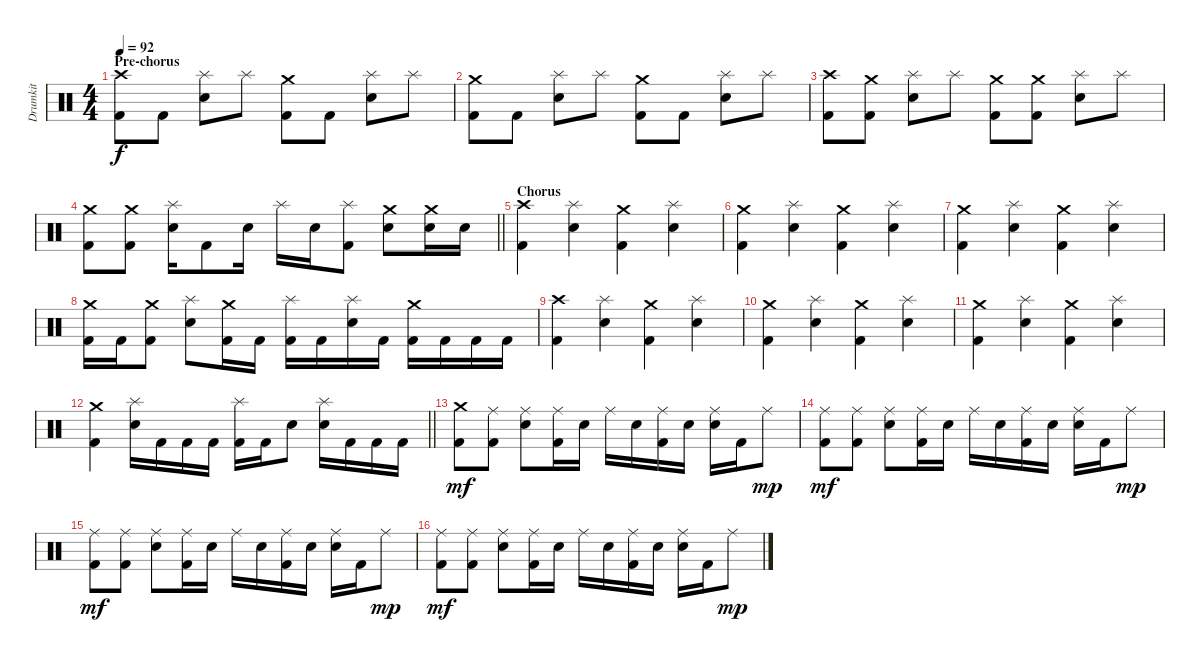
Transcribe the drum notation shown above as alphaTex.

\track ("Drumkit" "Drumkit") {instrument percussion}
\staff {score}
\articulation defaults
\ts (4 4)
\section ("" "Pre-chorus")
\tempo 92
\clef neutral
\ks c
("Crash high (hit)" "Kick (hit) 2").8{dy f} "Kick (hit) 2".8 ("Splash (hit)" "Snare (hit) 2").8 "Splash (hit)".8 ("Crash medium (hit)" "Kick (hit) 2").8 "Kick (hit) 2".8 ("Splash (hit)" "Snare (hit) 2").8 "Splash (hit)".8 |
("Crash medium (hit)" "Kick (hit) 2").8 "Kick (hit) 2".8 ("Splash (hit)" "Snare (hit) 2").8 "Splash (hit)".8 ("Crash medium (hit)" "Kick (hit) 2").8 "Kick (hit) 2".8 ("Splash (hit)" "Snare (hit) 2").8 "Splash (hit)".8 |
("Crash high (hit)" "Kick (hit) 2").8 ("Crash medium (hit)" "Kick (hit) 2").8 ("Splash (hit)" "Snare (hit) 2").8 "Splash (hit)".8 ("Crash medium (hit)" "Kick (hit) 2").8 ("Crash medium (hit)" "Kick (hit) 2").8 ("Splash (hit)" "Snare (hit) 2").8 "Splash (hit)".8 |
\barLineRight lightlight
("Crash medium (hit)" "Kick (hit) 2").8 ("Crash medium (hit)" "Kick (hit) 2").8 ("Splash (hit)" "Snare (hit) 2").16 "Kick (hit) 2".8 "Snare (hit) 2".16 "Splash (hit)".16 "Snare (hit) 2".16 ("Splash (hit)" "Kick (hit) 2").8 ("Crash medium (hit)" "Snare (hit) 2").8 ("Crash medium (hit)" "Snare (hit) 2").16 "Snare (hit) 2".16 |
\section ("" "Chorus")
("Crash high (hit)" "Kick (hit) 2").4 ("Splash (hit)" "Snare (hit) 2").4 ("Crash medium (hit)" "Kick (hit) 2").4 ("Splash (hit)" "Snare (hit) 2").4 |
("Crash medium (hit)" "Kick (hit) 2").4 ("Splash (hit)" "Snare (hit) 2").4 ("Crash medium (hit)" "Kick (hit) 2").4 ("Splash (hit)" "Snare (hit) 2").4 |
("Crash medium (hit)" "Kick (hit) 2").4 ("Splash (hit)" "Snare (hit) 2").4 ("Crash medium (hit)" "Kick (hit) 2").4 ("Splash (hit)" "Snare (hit) 2").4 |
("Crash medium (hit)" "Kick (hit) 2").16 "Kick (hit) 2".16 ("Crash medium (hit)" "Kick (hit) 2").8 ("Splash (hit)" "Snare (hit) 2").8 ("Crash medium (hit)" "Kick (hit) 2").16 "Kick (hit) 2".16 ("Splash (hit)" "Kick (hit) 2").16 "Kick (hit) 2".16 ("Splash (hit)" "Snare (hit) 2").16 "Kick (hit) 2".16 ("Crash medium (hit)" "Kick (hit) 2").16 "Kick (hit) 2".16 "Kick (hit) 2".16 "Kick (hit) 2".16 |
("Crash high (hit)" "Kick (hit) 2").4 ("Splash (hit)" "Snare (hit) 2").4 ("Crash medium (hit)" "Kick (hit) 2").4 ("Splash (hit)" "Snare (hit) 2").4 |
("Crash medium (hit)" "Kick (hit) 2").4 ("Splash (hit)" "Snare (hit) 2").4 ("Crash medium (hit)" "Kick (hit) 2").4 ("Splash (hit)" "Snare (hit) 2").4 |
("Crash medium (hit)" "Kick (hit) 2").4 ("Splash (hit)" "Snare (hit) 2").4 ("Crash medium (hit)" "Kick (hit) 2").4 ("Splash (hit)" "Snare (hit) 2").4 |
\barLineRight lightlight
("Crash medium (hit)" "Kick (hit) 2").4 ("Splash (hit)" "Snare (hit) 2").16 "Kick (hit) 2".16 "Kick (hit) 2".16 "Kick (hit) 2".16 ("Splash (hit)" "Kick (hit) 2").16 "Kick (hit) 2".16 "Snare (hit) 2".8 ("Splash (hit)" "Snare (hit) 2").16 "Kick (hit) 2".16 "Kick (hit) 2".16 "Kick (hit) 2".16 |
\section ("" "")
("Crash medium (hit)" "Kick (hit) 2").8{dy mf} ("Ride (middle)" "Kick (hit) 2").8 ("Ride (middle)" "Snare (hit) 2").8 ("Ride (middle)" "Kick (hit) 2").16 "Snare (hit) 2".16 "Ride (middle)".16 "Snare (hit) 2".16 ("Ride (middle)" "Kick (hit) 2").16 "Snare (hit) 2".16 ("Ride (middle)" "Snare (hit) 2").16 "Kick (hit) 2".16 "Ride (middle)".8{dy mp} |
("Ride (middle)" "Kick (hit) 2").8{dy mf} ("Ride (middle)" "Kick (hit) 2").8 ("Ride (middle)" "Snare (hit) 2").8 ("Ride (middle)" "Kick (hit) 2").16 "Snare (hit) 2".16 "Ride (middle)".16 "Snare (hit) 2".16 ("Ride (middle)" "Kick (hit) 2").16 "Snare (hit) 2".16 ("Ride (middle)" "Snare (hit) 2").16 "Kick (hit) 2".16 "Ride (middle)".8{dy mp} |
("Ride (middle)" "Kick (hit) 2").8{dy mf} ("Ride (middle)" "Kick (hit) 2").8 ("Ride (middle)" "Snare (hit) 2").8 ("Ride (middle)" "Kick (hit) 2").16 "Snare (hit) 2".16 "Ride (middle)".16 "Snare (hit) 2".16 ("Ride (middle)" "Kick (hit) 2").16 "Snare (hit) 2".16 ("Ride (middle)" "Snare (hit) 2").16 "Kick (hit) 2".16 "Ride (middle)".8{dy mp} |
("Ride (middle)" "Kick (hit) 2").8{dy mf} ("Ride (middle)" "Kick (hit) 2").8 ("Ride (middle)" "Snare (hit) 2").8 ("Ride (middle)" "Kick (hit) 2").16 "Snare (hit) 2".16 "Ride (middle)".16 "Snare (hit) 2".16 ("Ride (middle)" "Kick (hit) 2").16 "Snare (hit) 2".16 ("Ride (middle)" "Snare (hit) 2").16 "Kick (hit) 2".16 "Ride (middle)".8{dy mp}
